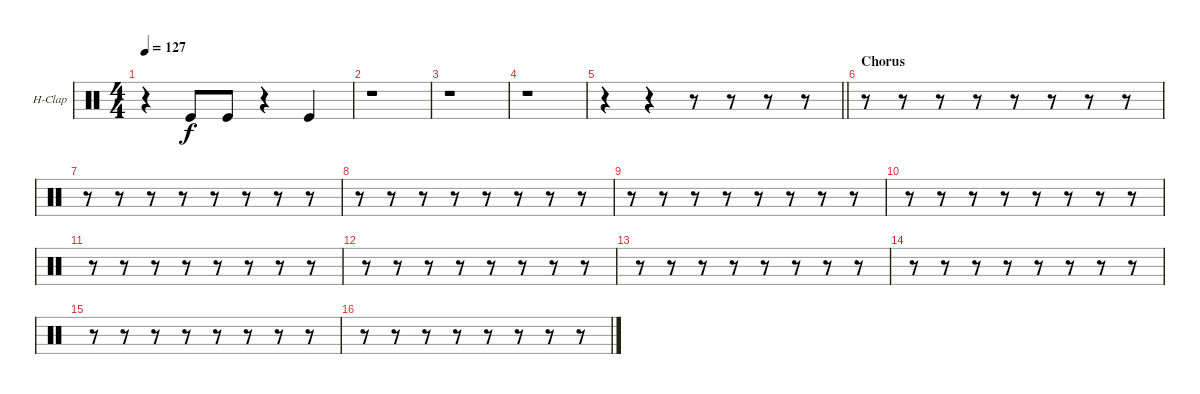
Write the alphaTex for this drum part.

\bracketExtendMode groupsimilarinstruments
\firstSystemTrackNameOrientation horizontal
\otherSystemsTrackNameOrientation horizontal
\track ("Hand Clap" "H-Clap") {instrument percussion}
\staff {score}
\articulation defaults
\ts (4 4)
\tempo 127
\clef neutral
\ks c
r.4{dy f} "Kick (hit)".8 "Kick (hit)".8 r.4 "Kick (hit)".4 |
r.1 |
r.1 |
r.1 |
\barLineRight lightlight
r.4 r.4 r.8 r.8 r.8 r.8 |
\section ("" "Chorus")
r.8 r.8 r.8 r.8 r.8 r.8 r.8 r.8 |
r.8 r.8 r.8 r.8 r.8 r.8 r.8 r.8 |
r.8 r.8 r.8 r.8 r.8 r.8 r.8 r.8 |
r.8 r.8 r.8 r.8 r.8 r.8 r.8 r.8 |
r.8 r.8 r.8 r.8 r.8 r.8 r.8 r.8 |
r.8 r.8 r.8 r.8 r.8 r.8 r.8 r.8 |
r.8 r.8 r.8 r.8 r.8 r.8 r.8 r.8 |
r.8 r.8 r.8 r.8 r.8 r.8 r.8 r.8 |
r.8 r.8 r.8 r.8 r.8 r.8 r.8 r.8 |
r.8 r.8 r.8 r.8 r.8 r.8 r.8 r.8 |
r.8 r.8 r.8 r.8 r.8 r.8 r.8 r.8
